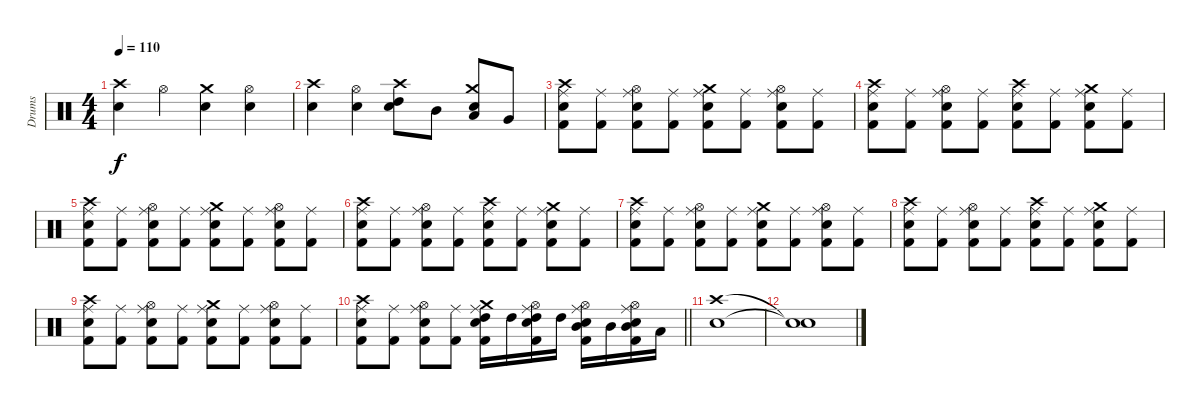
\track ("Drums" "Drums") {instrument percussion}
\staff {score}
\articulation defaults
\ts (4 4)
\tempo 110
\clef neutral
\ks c
("Crash high (hit)" "Snare (hit) 2").4{dy f} "Hi-Hat (open)".4 ("Crash medium (hit)" "Snare (hit) 2").4 ("Hi-Hat (open)" "Snare (hit) 2").4 |
("Crash high (hit)" "Snare (hit) 2").4 ("Hi-Hat (open)" "Snare (hit) 2").4 ("Crash high (hit)" "High Tom (hit)" "Snare (hit) 2").8 "Mid Tom (hit)".8 ("Crash medium (hit)" "Low Tom (hit)" "Snare (hit) 2").8 "Very Low Tom (hit)".8 |
("Kick (hit) 2" "Crash high (hit)" "Ride (middle)" "Snare (hit) 2").8 ("Kick (hit) 2" "Ride (middle)").8 ("Kick (hit) 2" "Hi-Hat (open)" "Ride (middle)" "Snare (hit) 2").8 ("Kick (hit) 2" "Ride (middle)").8 ("Kick (hit) 2" "Crash medium (hit)" "Ride (middle)" "Snare (hit) 2").8 ("Kick (hit) 2" "Ride (middle)").8 ("Kick (hit) 2" "Hi-Hat (open)" "Ride (middle)" "Snare (hit) 2").8 ("Kick (hit) 2" "Ride (middle)").8 |
("Kick (hit) 2" "Crash high (hit)" "Ride (middle)" "Snare (hit) 2").8 ("Kick (hit) 2" "Ride (middle)").8 ("Kick (hit) 2" "Hi-Hat (open)" "Ride (middle)" "Snare (hit) 2").8 ("Kick (hit) 2" "Ride (middle)").8 ("Kick (hit) 2" "Crash high (hit)" "Ride (middle)" "Snare (hit) 2").8 ("Kick (hit) 2" "Ride (middle)").8 ("Kick (hit) 2" "Crash medium (hit)" "Ride (middle)" "Snare (hit) 2").8 ("Kick (hit) 2" "Ride (middle)").8 |
("Kick (hit) 2" "Crash high (hit)" "Ride (middle)" "Snare (hit) 2").8 ("Kick (hit) 2" "Ride (middle)").8 ("Kick (hit) 2" "Hi-Hat (open)" "Ride (middle)" "Snare (hit) 2").8 ("Kick (hit) 2" "Ride (middle)").8 ("Kick (hit) 2" "Crash medium (hit)" "Ride (middle)" "Snare (hit) 2").8 ("Kick (hit) 2" "Ride (middle)").8 ("Kick (hit) 2" "Hi-Hat (open)" "Ride (middle)" "Snare (hit) 2").8 ("Kick (hit) 2" "Ride (middle)").8 |
("Kick (hit) 2" "Crash high (hit)" "Ride (middle)" "Snare (hit) 2").8 ("Kick (hit) 2" "Ride (middle)").8 ("Kick (hit) 2" "Hi-Hat (open)" "Ride (middle)" "Snare (hit) 2").8 ("Kick (hit) 2" "Ride (middle)").8 ("Kick (hit) 2" "Crash high (hit)" "Ride (middle)" "Snare (hit) 2").8 ("Kick (hit) 2" "Ride (middle)").8 ("Kick (hit) 2" "Crash medium (hit)" "Ride (middle)" "Snare (hit) 2").8 ("Kick (hit) 2" "Ride (middle)").8 |
("Kick (hit) 2" "Crash high (hit)" "Ride (middle)" "Snare (hit) 2").8 ("Kick (hit) 2" "Ride (middle)").8 ("Kick (hit) 2" "Hi-Hat (open)" "Ride (middle)" "Snare (hit) 2").8 ("Kick (hit) 2" "Ride (middle)").8 ("Kick (hit) 2" "Crash medium (hit)" "Ride (middle)" "Snare (hit) 2").8 ("Kick (hit) 2" "Ride (middle)").8 ("Kick (hit) 2" "Hi-Hat (open)" "Ride (middle)" "Snare (hit) 2").8 ("Kick (hit) 2" "Ride (middle)").8 |
("Kick (hit) 2" "Crash high (hit)" "Ride (middle)" "Snare (hit) 2").8 ("Kick (hit) 2" "Ride (middle)").8 ("Kick (hit) 2" "Hi-Hat (open)" "Ride (middle)" "Snare (hit) 2").8 ("Kick (hit) 2" "Ride (middle)").8 ("Kick (hit) 2" "Crash high (hit)" "Ride (middle)" "Snare (hit) 2").8 ("Kick (hit) 2" "Ride (middle)").8 ("Kick (hit) 2" "Crash medium (hit)" "Ride (middle)" "Snare (hit) 2").8 ("Kick (hit) 2" "Ride (middle)").8 |
("Kick (hit) 2" "Crash high (hit)" "Ride (middle)" "Snare (hit) 2").8 ("Kick (hit) 2" "Ride (middle)").8 ("Kick (hit) 2" "Hi-Hat (open)" "Ride (middle)" "Snare (hit) 2").8 ("Kick (hit) 2" "Ride (middle)").8 ("Kick (hit) 2" "Crash medium (hit)" "Ride (middle)" "Snare (hit) 2").8 ("Kick (hit) 2" "Ride (middle)").8 ("Kick (hit) 2" "Hi-Hat (open)" "Ride (middle)" "Snare (hit) 2").8 ("Kick (hit) 2" "Ride (middle)").8 |
\barLineRight lightlight
("Kick (hit) 2" "Crash high (hit)" "Ride (middle)" "Snare (hit) 2").8 ("Kick (hit) 2" "Ride (middle)").8 ("Kick (hit) 2" "Hi-Hat (open)" "Ride (middle)" "Snare (hit) 2").8 ("Kick (hit) 2" "Ride (middle)").8 ("Kick (hit) 2" "Crash medium (hit)" "Ride (middle)" "High Tom (hit)" "Snare (hit) 2").16 "High Tom (hit)".16 ("Kick (hit) 2" "Hi-Hat (open)" "Ride (middle)" "High Tom (hit)" "Snare (hit) 2").16 "High Tom (hit)".16 ("Kick (hit) 2" "Hi-Hat (open)" "Ride (middle)" "Mid Tom (hit)" "Snare (hit) 2").16 "Mid Tom (hit)".16 ("Kick (hit) 2" "Hi-Hat (open)" "Ride (middle)" "Mid Tom (hit)" "Snare (hit) 2").16 "Low Tom (hit)".16 |
\section ("" "")
("Crash high (hit)" "Snare (hit) 2").1 |
("Snare (hit)"{t} "Snare (hit)"{t}).1
